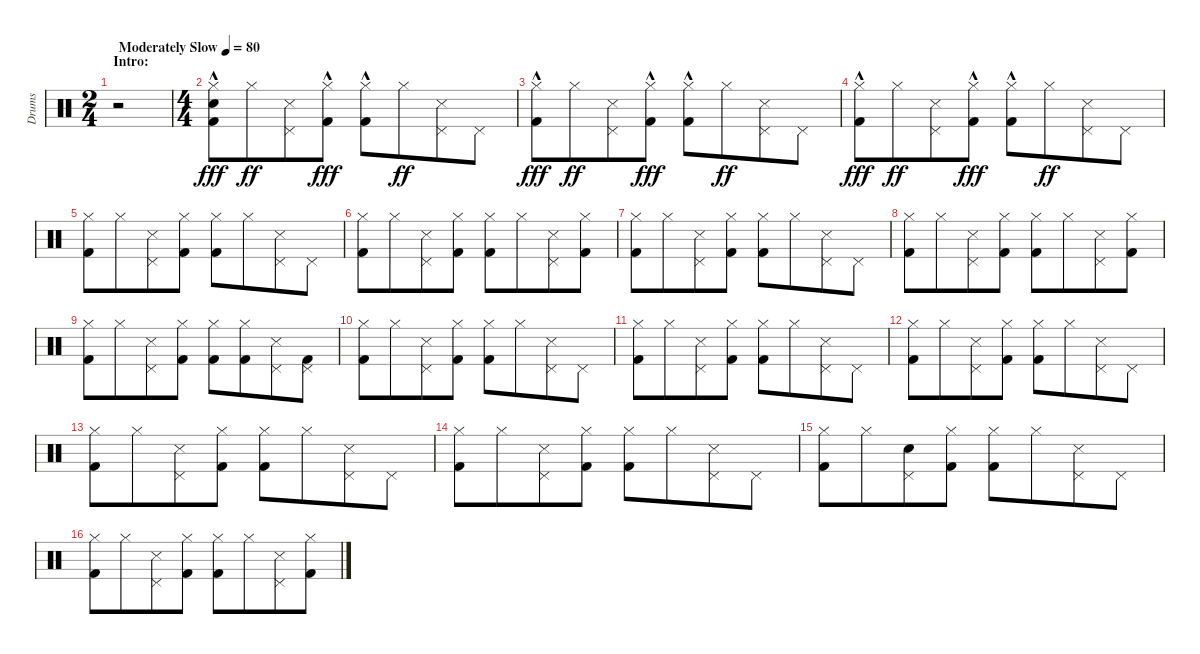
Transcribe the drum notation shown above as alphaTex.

\track ("Drums" "Drums") {instrument percussion}
\staff {score}
\articulation defaults
\ts (2 4)
\section ("" "Intro:")
\tempo (80 "Moderately Slow")
\clef neutral
\ks c
r.2{dy fff} |
\ts (4 4)
("Hi-Hat (closed)" "Snare (hit) 2" "Kick (hit) 2"{hac}).8 "Hi-Hat (closed)".8{dy ff beam merge} ("Pedal Hi-Hat (hit)" "Snare (side stick) 3").8 ("Hi-Hat (closed)" "Kick (hit) 2"{hac}).8{dy fff} ("Hi-Hat (closed)" "Kick (hit) 2"{hac}).8 "Hi-Hat (closed)".8{dy ff beam merge} ("Pedal Hi-Hat (hit)" "Snare (side stick) 3").8 "Pedal Hi-Hat (hit)".8 |
("Hi-Hat (closed)" "Kick (hit) 2"{hac}).8{dy fff} "Hi-Hat (closed)".8{dy ff beam merge} ("Pedal Hi-Hat (hit)" "Snare (side stick) 3").8 ("Hi-Hat (closed)" "Kick (hit) 2"{hac}).8{dy fff} ("Hi-Hat (closed)" "Kick (hit) 2"{hac}).8 "Hi-Hat (closed)".8{dy ff beam merge} ("Pedal Hi-Hat (hit)" "Snare (side stick) 3").8 "Pedal Hi-Hat (hit)".8 |
("Hi-Hat (closed)" "Kick (hit) 2"{hac}).8{dy fff} "Hi-Hat (closed)".8{dy ff beam merge} ("Pedal Hi-Hat (hit)" "Snare (side stick) 3").8 ("Hi-Hat (closed)" "Kick (hit) 2"{hac}).8{dy fff} ("Hi-Hat (closed)" "Kick (hit) 2"{hac}).8 "Hi-Hat (closed)".8{dy ff beam merge} ("Pedal Hi-Hat (hit)" "Snare (side stick) 3").8 "Pedal Hi-Hat (hit)".8 |
("Hi-Hat (closed)" "Kick (hit) 2").8 "Hi-Hat (closed)".8{beam merge} ("Pedal Hi-Hat (hit)" "Snare (side stick) 3").8 ("Hi-Hat (closed)" "Kick (hit) 2").8 ("Hi-Hat (closed)" "Kick (hit) 2").8 "Hi-Hat (closed)".8{beam merge} ("Pedal Hi-Hat (hit)" "Snare (side stick) 3").8 "Pedal Hi-Hat (hit)".8 |
("Hi-Hat (closed)" "Kick (hit) 2").8 "Hi-Hat (closed)".8{beam merge} ("Pedal Hi-Hat (hit)" "Snare (side stick) 3").8 ("Hi-Hat (closed)" "Kick (hit) 2").8 ("Hi-Hat (closed)" "Kick (hit) 2").8 "Hi-Hat (closed)".8{beam merge} ("Pedal Hi-Hat (hit)" "Snare (side stick) 3").8 ("Hi-Hat (closed)" "Kick (hit) 2").8 |
("Hi-Hat (closed)" "Kick (hit) 2").8 "Hi-Hat (closed)".8{beam merge} ("Pedal Hi-Hat (hit)" "Snare (side stick) 3").8 ("Hi-Hat (closed)" "Kick (hit) 2").8 ("Hi-Hat (closed)" "Kick (hit) 2").8 "Hi-Hat (closed)".8{beam merge} ("Pedal Hi-Hat (hit)" "Snare (side stick) 3").8 "Pedal Hi-Hat (hit)".8 |
("Hi-Hat (closed)" "Kick (hit) 2").8 "Hi-Hat (closed)".8{beam merge} ("Pedal Hi-Hat (hit)" "Snare (side stick) 3").8 ("Hi-Hat (closed)" "Kick (hit) 2").8 ("Hi-Hat (closed)" "Kick (hit) 2").8 "Hi-Hat (closed)".8{beam merge} ("Pedal Hi-Hat (hit)" "Snare (side stick) 3").8 ("Hi-Hat (closed)" "Kick (hit) 2").8 |
("Hi-Hat (closed)" "Kick (hit) 2").8 "Hi-Hat (closed)".8{beam merge} ("Pedal Hi-Hat (hit)" "Snare (side stick) 3").8 ("Hi-Hat (closed)" "Kick (hit) 2").8 ("Hi-Hat (closed)" "Kick (hit) 2").8 ("Hi-Hat (closed)" "Kick (hit) 2").8{beam merge} ("Pedal Hi-Hat (hit)" "Snare (side stick) 3").8 ("Pedal Hi-Hat (hit)" "Kick (hit) 2").8 |
("Hi-Hat (closed)" "Kick (hit) 2").8 "Hi-Hat (closed)".8{beam merge} ("Pedal Hi-Hat (hit)" "Snare (side stick) 3").8 ("Hi-Hat (closed)" "Kick (hit) 2").8 ("Hi-Hat (closed)" "Kick (hit) 2").8 "Hi-Hat (closed)".8{beam merge} ("Pedal Hi-Hat (hit)" "Snare (side stick) 3").8 "Pedal Hi-Hat (hit)".8 |
("Hi-Hat (closed)" "Kick (hit) 2").8 "Hi-Hat (closed)".8{beam merge} ("Pedal Hi-Hat (hit)" "Snare (side stick) 3").8 ("Hi-Hat (closed)" "Kick (hit) 2").8 ("Hi-Hat (closed)" "Kick (hit) 2").8 "Hi-Hat (closed)".8{beam merge} ("Pedal Hi-Hat (hit)" "Snare (side stick) 3").8 "Pedal Hi-Hat (hit)".8 |
("Hi-Hat (closed)" "Kick (hit) 2").8 "Hi-Hat (closed)".8{beam merge} ("Pedal Hi-Hat (hit)" "Snare (side stick) 3").8 ("Hi-Hat (closed)" "Kick (hit) 2").8 ("Hi-Hat (closed)" "Kick (hit) 2").8 "Hi-Hat (closed)".8{beam merge} ("Pedal Hi-Hat (hit)" "Snare (side stick) 3").8 "Pedal Hi-Hat (hit)".8 |
("Hi-Hat (closed)" "Kick (hit) 2").8 "Hi-Hat (closed)".8{beam merge} ("Pedal Hi-Hat (hit)" "Snare (side stick) 3").8 ("Hi-Hat (closed)" "Kick (hit) 2").8 ("Hi-Hat (closed)" "Kick (hit) 2").8 "Hi-Hat (closed)".8{beam merge} ("Pedal Hi-Hat (hit)" "Snare (side stick) 3").8 "Pedal Hi-Hat (hit)".8 |
("Hi-Hat (closed)" "Kick (hit) 2").8 "Hi-Hat (closed)".8{beam merge} ("Pedal Hi-Hat (hit)" "Snare (side stick) 3").8 ("Hi-Hat (closed)" "Kick (hit) 2").8 ("Hi-Hat (closed)" "Kick (hit) 2").8 "Hi-Hat (closed)".8{beam merge} ("Pedal Hi-Hat (hit)" "Snare (side stick) 3").8 "Pedal Hi-Hat (hit)".8 |
("Hi-Hat (closed)" "Kick (hit) 2").8 "Hi-Hat (closed)".8{beam merge} ("Pedal Hi-Hat (hit)" "Snare (hit) 2").8 ("Hi-Hat (closed)" "Kick (hit) 2").8 ("Hi-Hat (closed)" "Kick (hit) 2").8 "Hi-Hat (closed)".8{beam merge} ("Pedal Hi-Hat (hit)" "Snare (side stick) 3").8 "Pedal Hi-Hat (hit)".8 |
("Hi-Hat (closed)" "Kick (hit) 2").8 "Hi-Hat (closed)".8{beam merge} ("Pedal Hi-Hat (hit)" "Snare (side stick) 3").8 ("Hi-Hat (closed)" "Kick (hit) 2").8 ("Hi-Hat (closed)" "Kick (hit) 2").8 "Hi-Hat (closed)".8{beam merge} ("Pedal Hi-Hat (hit)" "Snare (side stick) 3").8 ("Hi-Hat (closed)" "Kick (hit) 2").8
